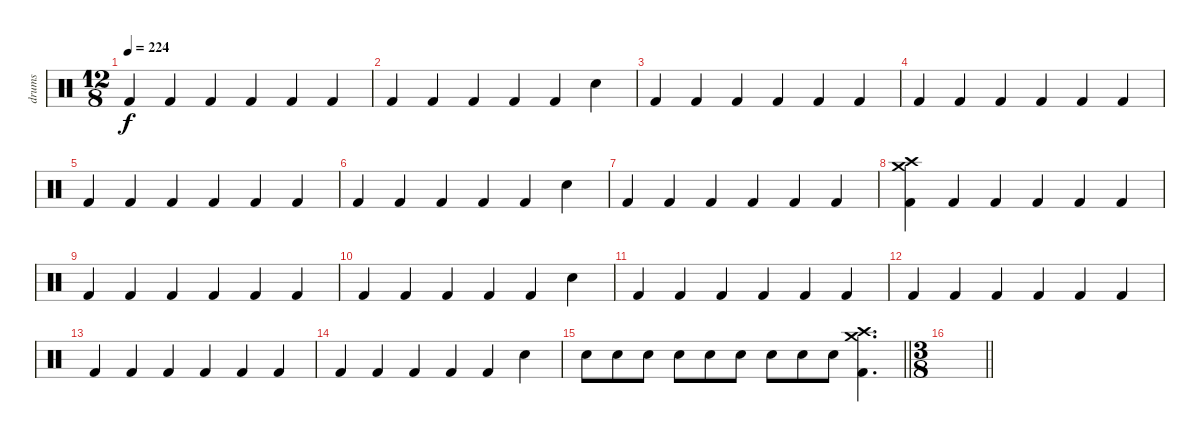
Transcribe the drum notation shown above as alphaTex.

\track ("drums" "drums") {instrument percussion}
\staff {score}
\articulation defaults
\ts (12 8)
\tempo 224
\clef neutral
\ks c "Kick (hit) 2".4{dy f} "Kick (hit) 2".4 "Kick (hit) 2".4 "Kick (hit) 2".4 "Kick (hit) 2".4 "Kick (hit) 2".4
|
"Kick (hit) 2".4 "Kick (hit) 2".4 "Kick (hit) 2".4 "Kick (hit) 2".4 "Kick (hit) 2".4 "Electric Snare (hit)".4 |
"Kick (hit) 2".4 "Kick (hit) 2".4 "Kick (hit) 2".4 "Kick (hit) 2".4 "Kick (hit) 2".4 "Kick (hit) 2".4 |
"Kick (hit) 2".4 "Kick (hit) 2".4 "Kick (hit) 2".4 "Kick (hit) 2".4 "Kick (hit) 2".4 "Kick (hit) 2".4 |
"Kick (hit) 2".4 "Kick (hit) 2".4 "Kick (hit) 2".4 "Kick (hit) 2".4 "Kick (hit) 2".4 "Kick (hit) 2".4 |
"Kick (hit) 2".4 "Kick (hit) 2".4 "Kick (hit) 2".4 "Kick (hit) 2".4 "Kick (hit) 2".4 "Electric Snare (hit)".4 |
"Kick (hit) 2".4 "Kick (hit) 2".4 "Kick (hit) 2".4 "Kick (hit) 2".4 "Kick (hit) 2".4 "Kick (hit) 2".4 |
("Kick (hit) 2" "Crash medium (hit)" "Crash high (hit)").4 "Kick (hit) 2".4 "Kick (hit) 2".4 "Kick (hit) 2".4 "Kick (hit) 2".4 "Kick (hit) 2".4 |
"Kick (hit) 2".4 "Kick (hit) 2".4 "Kick (hit) 2".4 "Kick (hit) 2".4 "Kick (hit) 2".4 "Kick (hit) 2".4 |
"Kick (hit) 2".4 "Kick (hit) 2".4 "Kick (hit) 2".4 "Kick (hit) 2".4 "Kick (hit) 2".4 "Electric Snare (hit)".4 |
"Kick (hit) 2".4 "Kick (hit) 2".4 "Kick (hit) 2".4 "Kick (hit) 2".4 "Kick (hit) 2".4 "Kick (hit) 2".4 |
"Kick (hit) 2".4 "Kick (hit) 2".4 "Kick (hit) 2".4 "Kick (hit) 2".4 "Kick (hit) 2".4 "Kick (hit) 2".4 |
"Kick (hit) 2".4 "Kick (hit) 2".4 "Kick (hit) 2".4 "Kick (hit) 2".4 "Kick (hit) 2".4 "Kick (hit) 2".4 |
"Kick (hit) 2".4 "Kick (hit) 2".4 "Kick (hit) 2".4 "Kick (hit) 2".4 "Kick (hit) 2".4 "Electric Snare (hit)".4 |
\barLineRight lightlight "Electric Snare (hit)".8 "Electric Snare (hit)".8 "Electric Snare (hit)".8 "Electric Snare (hit)".8 "Electric Snare (hit)".8 "Electric Snare (hit)".8 "Electric Snare (hit)".8 "Electric Snare (hit)".8 "Electric Snare (hit)".8
("Crash medium (hit)" "Crash high (hit)" "Kick (hit) 2").4{d} |
\ts (3 8)
\barLineRight lightlight
